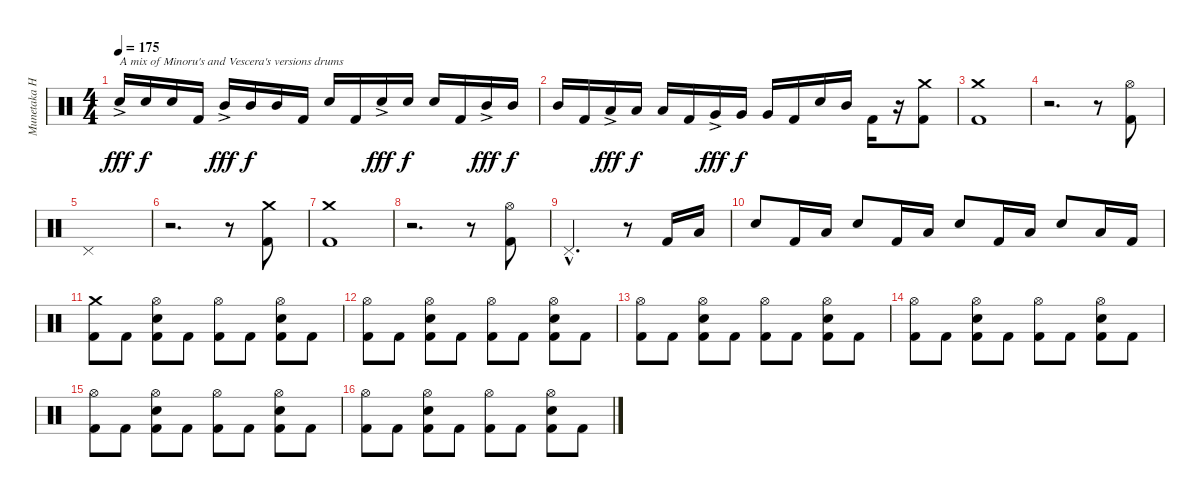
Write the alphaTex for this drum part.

\track ("Munetaka Higuchi" "Munetaka H") {instrument percussion}
\staff {score}
\articulation defaults
\ts (4 4)
\tempo 175
\clef neutral
\ks c "Electric Snare (hit)"{ac}.16{txt "A mix of Minoru's and Vescera's versions drums" dy fff} "Electric Snare (hit)".16{dy f} "Electric Snare (hit)".16 "Kick (hit) 2".16 "Mid Tom (hit)"{ac}.16{dy fff} "Mid Tom (hit)".16{dy f} "Mid Tom (hit)".16 "Kick (hit) 2".16 "Electric Snare (hit)".16 "Kick (hit) 2".16 "Electric Snare (hit)"{ac}.16{dy fff} "Electric Snare (hit)".16{dy f} "Electric Snare (hit)".16 "Kick (hit) 2".16 "Mid Tom (hit)"{ac}.16{dy fff} "Mid Tom (hit)".16{dy f}
|
"Mid Tom (hit)".16 "Kick (hit) 2".16 "Low Tom (hit)"{ac}.16{dy fff} "Low Tom (hit)".16{dy f} "Low Tom (hit)".16 "Kick (hit) 2".16 "Very Low Tom (hit)"{ac}.16{dy fff} "Very Low Tom (hit)".16{dy f} "Very Low Tom (hit)".16 "Kick (hit) 2".16 "Electric Snare (hit)".16 "Mid Tom (hit)".16 "Kick (hit) 2".16 r.16 ("Crash medium (hit)" "Kick (hit) 2").8 |
("Crash medium (hit)" "Kick (hit) 2").1 |
r.2{d} r.8 ("Hi-Hat (open)" "Kick (hit) 2").8 |
"Pedal Hi-Hat (hit)".1 |
r.2{d} r.8 ("Crash medium (hit)" "Kick (hit) 2").8 |
("Crash medium (hit)" "Kick (hit) 2").1 |
r.2{d} r.8 ("Hi-Hat (open)" "Kick (hit) 2").8 |
"Pedal Hi-Hat (hit)"{hac}.2{d} r.8 "Kick (hit) 2".16 "Low Tom (hit)".16 |
"Electric Snare (hit)".8 "Kick (hit) 2".16 "Low Tom (hit)".16 "Electric Snare (hit)".8 "Kick (hit) 2".16 "Low Tom (hit)".16 "Electric Snare (hit)".8 "Kick (hit) 2".16 "Low Tom (hit)".16 "Electric Snare (hit)".8 "Low Tom (hit)".16 "Kick (hit) 2".16 |
("Crash medium (hit)" "Kick (hit) 2").8 "Kick (hit) 2".8 ("Hi-Hat (open)" "Electric Snare (hit)" "Kick (hit) 2").8 "Kick (hit) 2".8 ("Hi-Hat (open)" "Kick (hit) 2").8 "Kick (hit) 2".8 ("Hi-Hat (open)" "Electric Snare (hit)" "Kick (hit) 2").8 "Kick (hit) 2".8 |
("Hi-Hat (open)" "Kick (hit) 2").8 "Kick (hit) 2".8 ("Hi-Hat (open)" "Electric Snare (hit)" "Kick (hit) 2").8 "Kick (hit) 2".8 ("Hi-Hat (open)" "Kick (hit) 2").8 "Kick (hit) 2".8 ("Hi-Hat (open)" "Electric Snare (hit)" "Kick (hit) 2").8 "Kick (hit) 2".8 |
("Hi-Hat (open)" "Kick (hit) 2").8 "Kick (hit) 2".8 ("Hi-Hat (open)" "Electric Snare (hit)" "Kick (hit) 2").8 "Kick (hit) 2".8 ("Hi-Hat (open)" "Kick (hit) 2").8 "Kick (hit) 2".8 ("Hi-Hat (open)" "Electric Snare (hit)" "Kick (hit) 2").8 "Kick (hit) 2".8 |
("Hi-Hat (open)" "Kick (hit) 2").8 "Kick (hit) 2".8 ("Hi-Hat (open)" "Electric Snare (hit)" "Kick (hit) 2").8 "Kick (hit) 2".8 ("Hi-Hat (open)" "Kick (hit) 2").8 "Kick (hit) 2".8 ("Hi-Hat (open)" "Electric Snare (hit)" "Kick (hit) 2").8 "Kick (hit) 2".8 |
("Hi-Hat (open)" "Kick (hit) 2").8 "Kick (hit) 2".8 ("Hi-Hat (open)" "Electric Snare (hit)" "Kick (hit) 2").8 "Kick (hit) 2".8 ("Hi-Hat (open)" "Kick (hit) 2").8 "Kick (hit) 2".8 ("Hi-Hat (open)" "Electric Snare (hit)" "Kick (hit) 2").8 "Kick (hit) 2".8 |
("Hi-Hat (open)" "Kick (hit) 2").8 "Kick (hit) 2".8 ("Hi-Hat (open)" "Electric Snare (hit)" "Kick (hit) 2").8 "Kick (hit) 2".8 ("Hi-Hat (open)" "Kick (hit) 2").8 "Kick (hit) 2".8 ("Hi-Hat (open)" "Electric Snare (hit)" "Kick (hit) 2").8 "Kick (hit) 2".8
